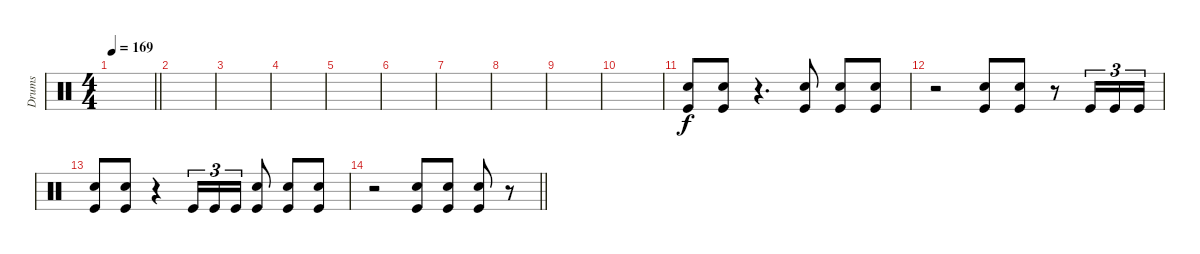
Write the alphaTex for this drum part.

\track ("Drums" "Drums") {instrument percussion}
\staff
\articulation defaults
\ts (4 4)
\tempo 169
\clef neutral
\barLineRight lightlight
\ks c
|
|
|
|
|
|
|
|
|
|
("Electric Snare (hit)" "Kick (hit)").8 ("Electric Snare (hit)" "Kick (hit)").8 r.4{d} ("Electric Snare (hit)" "Kick (hit)").8 ("Electric Snare (hit)" "Kick (hit)").8 ("Electric Snare (hit)" "Kick (hit)").8 |
r.2 ("Electric Snare (hit)" "Kick (hit)").8 ("Electric Snare (hit)" "Kick (hit)").8 r.8 "Kick (hit)".16{tu (3 2)} "Kick (hit)".16{tu (3 2)} "Kick (hit)".16{tu (3 2)} |
("Electric Snare (hit)" "Kick (hit)").8 ("Electric Snare (hit)" "Kick (hit)").8 r.4 "Kick (hit)".16{tu (3 2)} "Kick (hit)".16{tu (3 2)} "Kick (hit)".16{tu (3 2)} ("Electric Snare (hit)" "Kick (hit)").8 ("Electric Snare (hit)" "Kick (hit)").8 ("Electric Snare (hit)" "Kick (hit)").8 |
\barLineRight lightlight
r.2 ("Electric Snare (hit)" "Kick (hit)").8 ("Electric Snare (hit)" "Kick (hit)").8 ("Electric Snare (hit)" "Kick (hit)").8 r.8
